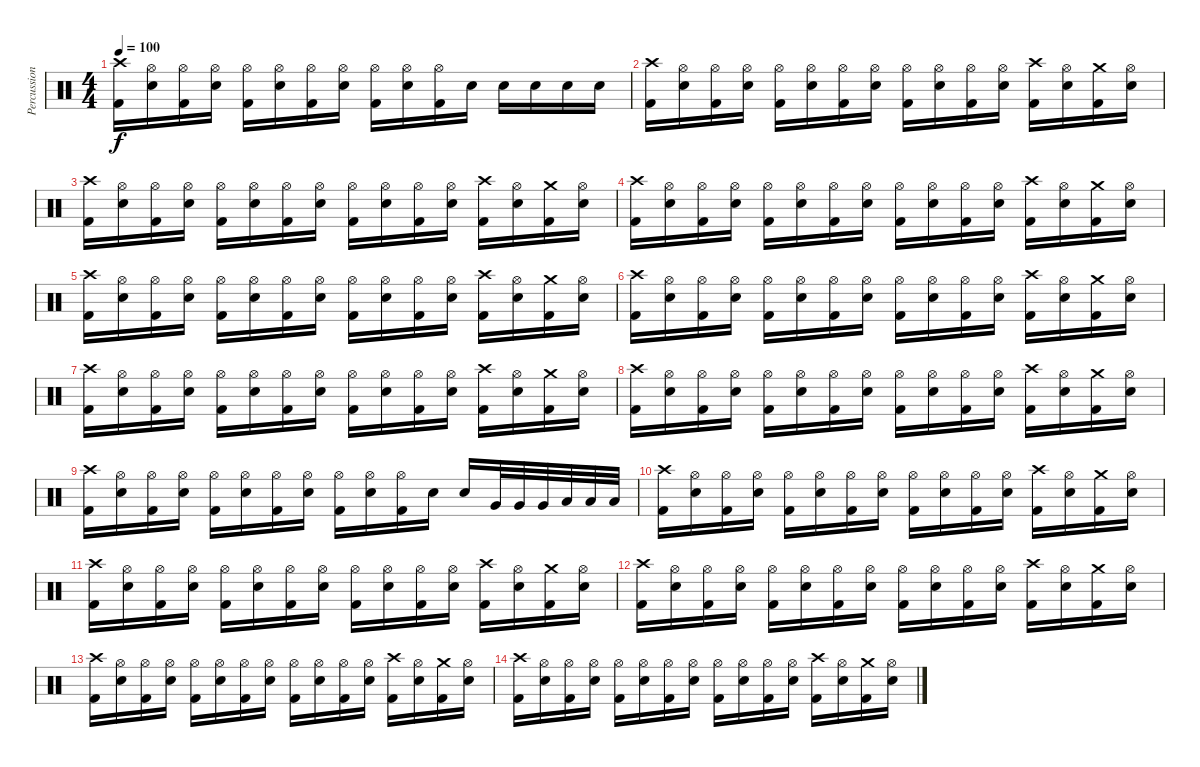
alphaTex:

\track ("Percussion" "Percussion") {instrument percussion}
\staff {score}
\articulation defaults
\ts (4 4)
\tempo 100
\clef neutral
\ks c
("Crash high (hit)" "Kick (hit) 2").16{dy f} ("Hi-Hat (open)" "Snare (hit) 2").16 ("Hi-Hat (open)" "Kick (hit) 2").16 ("Hi-Hat (open)" "Snare (hit) 2").16 ("Hi-Hat (open)" "Kick (hit) 2").16 ("Hi-Hat (open)" "Snare (hit) 2").16 ("Hi-Hat (open)" "Kick (hit) 2").16 ("Hi-Hat (open)" "Snare (hit) 2").16 ("Hi-Hat (open)" "Kick (hit) 2").16 ("Hi-Hat (open)" "Snare (hit) 2").16 ("Hi-Hat (open)" "Kick (hit) 2").16 "Snare (hit) 2".16 "Snare (hit) 2".16 "Snare (hit) 2".16 "Snare (hit) 2".16 "Snare (hit) 2".16 |
("Crash high (hit)" "Kick (hit) 2").16 ("Hi-Hat (open)" "Snare (hit) 2").16 ("Hi-Hat (open)" "Kick (hit) 2").16 ("Hi-Hat (open)" "Snare (hit) 2").16 ("Hi-Hat (open)" "Kick (hit) 2").16 ("Hi-Hat (open)" "Snare (hit) 2").16 ("Hi-Hat (open)" "Kick (hit) 2").16 ("Hi-Hat (open)" "Snare (hit) 2").16 ("Hi-Hat (open)" "Kick (hit) 2").16 ("Hi-Hat (open)" "Snare (hit) 2").16 ("Hi-Hat (open)" "Kick (hit) 2").16 ("Hi-Hat (open)" "Snare (hit) 2").16 ("Crash high (hit)" "Kick (hit) 2").16 ("Hi-Hat (open)" "Snare (hit) 2").16 ("Crash medium (hit)" "Kick (hit) 2").16 ("Hi-Hat (open)" "Snare (hit) 2").16 |
("Crash high (hit)" "Kick (hit) 2").16 ("Hi-Hat (open)" "Snare (hit) 2").16 ("Hi-Hat (open)" "Kick (hit) 2").16 ("Hi-Hat (open)" "Snare (hit) 2").16 ("Hi-Hat (open)" "Kick (hit) 2").16 ("Hi-Hat (open)" "Snare (hit) 2").16 ("Hi-Hat (open)" "Kick (hit) 2").16 ("Hi-Hat (open)" "Snare (hit) 2").16 ("Hi-Hat (open)" "Kick (hit) 2").16 ("Hi-Hat (open)" "Snare (hit) 2").16 ("Hi-Hat (open)" "Kick (hit) 2").16 ("Hi-Hat (open)" "Snare (hit) 2").16 ("Crash high (hit)" "Kick (hit) 2").16 ("Hi-Hat (open)" "Snare (hit) 2").16 ("Crash medium (hit)" "Kick (hit) 2").16 ("Hi-Hat (open)" "Snare (hit) 2").16 |
("Crash high (hit)" "Kick (hit) 2").16 ("Hi-Hat (open)" "Snare (hit) 2").16 ("Hi-Hat (open)" "Kick (hit) 2").16 ("Hi-Hat (open)" "Snare (hit) 2").16 ("Hi-Hat (open)" "Kick (hit) 2").16 ("Hi-Hat (open)" "Snare (hit) 2").16 ("Hi-Hat (open)" "Kick (hit) 2").16 ("Hi-Hat (open)" "Snare (hit) 2").16 ("Hi-Hat (open)" "Kick (hit) 2").16 ("Hi-Hat (open)" "Snare (hit) 2").16 ("Hi-Hat (open)" "Kick (hit) 2").16 ("Hi-Hat (open)" "Snare (hit) 2").16 ("Crash high (hit)" "Kick (hit) 2").16 ("Hi-Hat (open)" "Snare (hit) 2").16 ("Crash medium (hit)" "Kick (hit) 2").16 ("Hi-Hat (open)" "Snare (hit) 2").16 |
("Crash high (hit)" "Kick (hit) 2").16 ("Hi-Hat (open)" "Snare (hit) 2").16 ("Hi-Hat (open)" "Kick (hit) 2").16 ("Hi-Hat (open)" "Snare (hit) 2").16 ("Hi-Hat (open)" "Kick (hit) 2").16 ("Hi-Hat (open)" "Snare (hit) 2").16 ("Hi-Hat (open)" "Kick (hit) 2").16 ("Hi-Hat (open)" "Snare (hit) 2").16 ("Hi-Hat (open)" "Kick (hit) 2").16 ("Hi-Hat (open)" "Snare (hit) 2").16 ("Hi-Hat (open)" "Kick (hit) 2").16 ("Hi-Hat (open)" "Snare (hit) 2").16 ("Crash high (hit)" "Kick (hit) 2").16 ("Hi-Hat (open)" "Snare (hit) 2").16 ("Crash medium (hit)" "Kick (hit) 2").16 ("Hi-Hat (open)" "Snare (hit) 2").16 |
("Crash high (hit)" "Kick (hit) 2").16 ("Hi-Hat (open)" "Snare (hit) 2").16 ("Hi-Hat (open)" "Kick (hit) 2").16 ("Hi-Hat (open)" "Snare (hit) 2").16 ("Hi-Hat (open)" "Kick (hit) 2").16 ("Hi-Hat (open)" "Snare (hit) 2").16 ("Hi-Hat (open)" "Kick (hit) 2").16 ("Hi-Hat (open)" "Snare (hit) 2").16 ("Hi-Hat (open)" "Kick (hit) 2").16 ("Hi-Hat (open)" "Snare (hit) 2").16 ("Hi-Hat (open)" "Kick (hit) 2").16 ("Hi-Hat (open)" "Snare (hit) 2").16 ("Crash high (hit)" "Kick (hit) 2").16 ("Hi-Hat (open)" "Snare (hit) 2").16 ("Crash medium (hit)" "Kick (hit) 2").16 ("Hi-Hat (open)" "Snare (hit) 2").16 |
("Crash high (hit)" "Kick (hit) 2").16 ("Hi-Hat (open)" "Snare (hit) 2").16 ("Hi-Hat (open)" "Kick (hit) 2").16 ("Hi-Hat (open)" "Snare (hit) 2").16 ("Hi-Hat (open)" "Kick (hit) 2").16 ("Hi-Hat (open)" "Snare (hit) 2").16 ("Hi-Hat (open)" "Kick (hit) 2").16 ("Hi-Hat (open)" "Snare (hit) 2").16 ("Hi-Hat (open)" "Kick (hit) 2").16 ("Hi-Hat (open)" "Snare (hit) 2").16 ("Hi-Hat (open)" "Kick (hit) 2").16 ("Hi-Hat (open)" "Snare (hit) 2").16 ("Crash high (hit)" "Kick (hit) 2").16 ("Hi-Hat (open)" "Snare (hit) 2").16 ("Crash medium (hit)" "Kick (hit) 2").16 ("Hi-Hat (open)" "Snare (hit) 2").16 |
("Crash high (hit)" "Kick (hit) 2").16 ("Hi-Hat (open)" "Snare (hit) 2").16 ("Hi-Hat (open)" "Kick (hit) 2").16 ("Hi-Hat (open)" "Snare (hit) 2").16 ("Hi-Hat (open)" "Kick (hit) 2").16 ("Hi-Hat (open)" "Snare (hit) 2").16 ("Hi-Hat (open)" "Kick (hit) 2").16 ("Hi-Hat (open)" "Snare (hit) 2").16 ("Hi-Hat (open)" "Kick (hit) 2").16 ("Hi-Hat (open)" "Snare (hit) 2").16 ("Hi-Hat (open)" "Kick (hit) 2").16 ("Hi-Hat (open)" "Snare (hit) 2").16 ("Crash high (hit)" "Kick (hit) 2").16 ("Hi-Hat (open)" "Snare (hit) 2").16 ("Crash medium (hit)" "Kick (hit) 2").16 ("Hi-Hat (open)" "Snare (hit) 2").16 |
("Crash high (hit)" "Kick (hit) 2").16 ("Hi-Hat (open)" "Snare (hit) 2").16 ("Hi-Hat (open)" "Kick (hit) 2").16 ("Hi-Hat (open)" "Snare (hit) 2").16 ("Hi-Hat (open)" "Kick (hit) 2").16 ("Hi-Hat (open)" "Snare (hit) 2").16 ("Hi-Hat (open)" "Kick (hit) 2").16 ("Hi-Hat (open)" "Snare (hit) 2").16 ("Hi-Hat (open)" "Kick (hit) 2").16 ("Hi-Hat (open)" "Snare (hit) 2").16 ("Hi-Hat (open)" "Kick (hit) 2").16 "Snare (hit) 2".16 "Snare (hit) 2".16 "Very Low Tom (hit)".32 "Very Low Tom (hit)".32 "Very Low Tom (hit)".32 "Low Floor Tom (hit)".32 "Low Floor Tom (hit)".32 "Low Floor Tom (hit)".32 |
("Crash high (hit)" "Kick (hit) 2").16 ("Hi-Hat (open)" "Snare (hit) 2").16 ("Hi-Hat (open)" "Kick (hit) 2").16 ("Hi-Hat (open)" "Snare (hit) 2").16 ("Hi-Hat (open)" "Kick (hit) 2").16 ("Hi-Hat (open)" "Snare (hit) 2").16 ("Hi-Hat (open)" "Kick (hit) 2").16 ("Hi-Hat (open)" "Snare (hit) 2").16 ("Hi-Hat (open)" "Kick (hit) 2").16 ("Hi-Hat (open)" "Snare (hit) 2").16 ("Hi-Hat (open)" "Kick (hit) 2").16 ("Hi-Hat (open)" "Snare (hit) 2").16 ("Crash high (hit)" "Kick (hit) 2").16 ("Hi-Hat (open)" "Snare (hit) 2").16 ("Crash medium (hit)" "Kick (hit) 2").16 ("Hi-Hat (open)" "Snare (hit) 2").16 |
("Crash high (hit)" "Kick (hit) 2").16 ("Hi-Hat (open)" "Snare (hit) 2").16 ("Hi-Hat (open)" "Kick (hit) 2").16 ("Hi-Hat (open)" "Snare (hit) 2").16 ("Hi-Hat (open)" "Kick (hit) 2").16 ("Hi-Hat (open)" "Snare (hit) 2").16 ("Hi-Hat (open)" "Kick (hit) 2").16 ("Hi-Hat (open)" "Snare (hit) 2").16 ("Hi-Hat (open)" "Kick (hit) 2").16 ("Hi-Hat (open)" "Snare (hit) 2").16 ("Hi-Hat (open)" "Kick (hit) 2").16 ("Hi-Hat (open)" "Snare (hit) 2").16 ("Crash high (hit)" "Kick (hit) 2").16 ("Hi-Hat (open)" "Snare (hit) 2").16 ("Crash medium (hit)" "Kick (hit) 2").16 ("Hi-Hat (open)" "Snare (hit) 2").16 |
("Crash high (hit)" "Kick (hit) 2").16 ("Hi-Hat (open)" "Snare (hit) 2").16 ("Hi-Hat (open)" "Kick (hit) 2").16 ("Hi-Hat (open)" "Snare (hit) 2").16 ("Hi-Hat (open)" "Kick (hit) 2").16 ("Hi-Hat (open)" "Snare (hit) 2").16 ("Hi-Hat (open)" "Kick (hit) 2").16 ("Hi-Hat (open)" "Snare (hit) 2").16 ("Hi-Hat (open)" "Kick (hit) 2").16 ("Hi-Hat (open)" "Snare (hit) 2").16 ("Hi-Hat (open)" "Kick (hit) 2").16 ("Hi-Hat (open)" "Snare (hit) 2").16 ("Crash high (hit)" "Kick (hit) 2").16 ("Hi-Hat (open)" "Snare (hit) 2").16 ("Crash medium (hit)" "Kick (hit) 2").16 ("Hi-Hat (open)" "Snare (hit) 2").16 |
("Crash high (hit)" "Kick (hit) 2").16 ("Hi-Hat (open)" "Snare (hit) 2").16 ("Hi-Hat (open)" "Kick (hit) 2").16 ("Hi-Hat (open)" "Snare (hit) 2").16 ("Hi-Hat (open)" "Kick (hit) 2").16 ("Hi-Hat (open)" "Snare (hit) 2").16 ("Hi-Hat (open)" "Kick (hit) 2").16 ("Hi-Hat (open)" "Snare (hit) 2").16 ("Hi-Hat (open)" "Kick (hit) 2").16 ("Hi-Hat (open)" "Snare (hit) 2").16 ("Hi-Hat (open)" "Kick (hit) 2").16 ("Hi-Hat (open)" "Snare (hit) 2").16 ("Crash high (hit)" "Kick (hit) 2").16 ("Hi-Hat (open)" "Snare (hit) 2").16 ("Crash medium (hit)" "Kick (hit) 2").16 ("Hi-Hat (open)" "Snare (hit) 2").16 |
("Crash high (hit)" "Kick (hit) 2").16 ("Hi-Hat (open)" "Snare (hit) 2").16 ("Hi-Hat (open)" "Kick (hit) 2").16 ("Hi-Hat (open)" "Snare (hit) 2").16 ("Hi-Hat (open)" "Kick (hit) 2").16 ("Hi-Hat (open)" "Snare (hit) 2").16 ("Hi-Hat (open)" "Kick (hit) 2").16 ("Hi-Hat (open)" "Snare (hit) 2").16 ("Hi-Hat (open)" "Kick (hit) 2").16 ("Hi-Hat (open)" "Snare (hit) 2").16 ("Hi-Hat (open)" "Kick (hit) 2").16 ("Hi-Hat (open)" "Snare (hit) 2").16 ("Crash high (hit)" "Kick (hit) 2").16 ("Hi-Hat (open)" "Snare (hit) 2").16 ("Crash medium (hit)" "Kick (hit) 2").16 ("Hi-Hat (open)" "Snare (hit) 2").16
